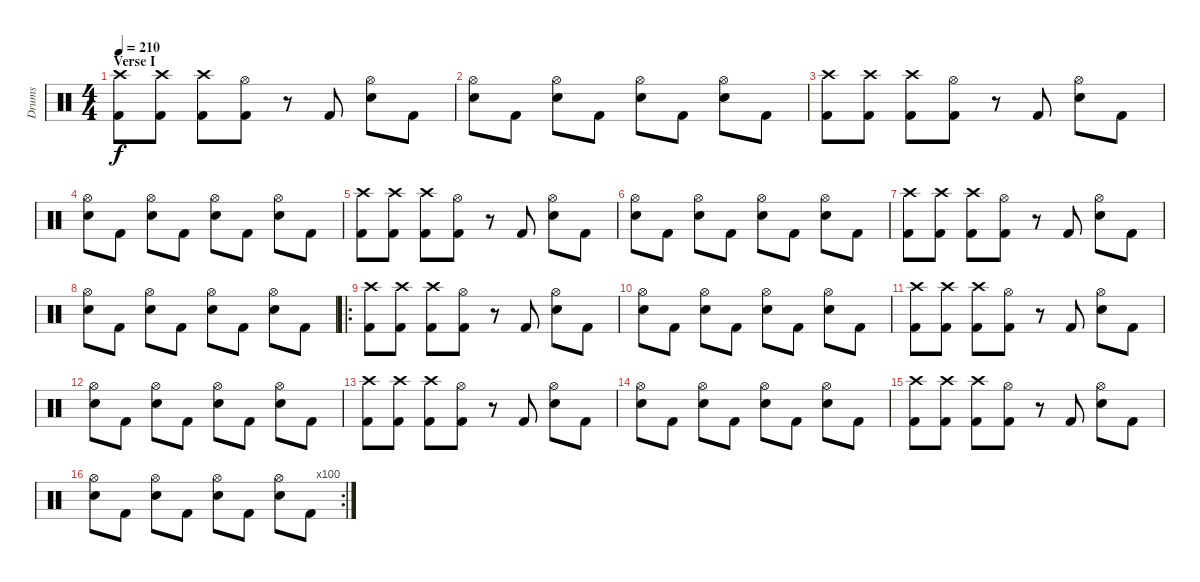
\track ("Drums" "Drums") {instrument percussion}
\staff {score}
\articulation defaults
\ts (4 4)
\section ("" "Verse I")
\tempo 210
\clef neutral
\ks c
("Crash high (hit)" "Kick (hit) 2").8{dy f} ("Crash high (hit)" "Kick (hit) 2").8 ("Crash high (hit)" "Kick (hit) 2").8 ("Hi-Hat (open)" "Kick (hit) 2").8 r.8 "Kick (hit) 2".8 ("Hi-Hat (open)" "Snare (hit) 2").8 "Kick (hit) 2".8 |
("Hi-Hat (open)" "Snare (hit) 2").8 "Kick (hit) 2".8 ("Hi-Hat (open)" "Snare (hit) 2").8 "Kick (hit) 2".8 ("Hi-Hat (open)" "Snare (hit) 2").8 "Kick (hit) 2".8 ("Hi-Hat (open)" "Snare (hit) 2").8 "Kick (hit) 2".8 |
("Crash high (hit)" "Kick (hit) 2").8 ("Crash high (hit)" "Kick (hit) 2").8 ("Crash high (hit)" "Kick (hit) 2").8 ("Hi-Hat (open)" "Kick (hit) 2").8 r.8 "Kick (hit) 2".8 ("Hi-Hat (open)" "Snare (hit) 2").8 "Kick (hit) 2".8 |
("Hi-Hat (open)" "Snare (hit) 2").8 "Kick (hit) 2".8 ("Hi-Hat (open)" "Snare (hit) 2").8 "Kick (hit) 2".8 ("Hi-Hat (open)" "Snare (hit) 2").8 "Kick (hit) 2".8 ("Hi-Hat (open)" "Snare (hit) 2").8 "Kick (hit) 2".8 |
("Crash high (hit)" "Kick (hit) 2").8 ("Crash high (hit)" "Kick (hit) 2").8 ("Crash high (hit)" "Kick (hit) 2").8 ("Hi-Hat (open)" "Kick (hit) 2").8 r.8 "Kick (hit) 2".8 ("Hi-Hat (open)" "Snare (hit) 2").8 "Kick (hit) 2".8 |
("Hi-Hat (open)" "Snare (hit) 2").8 "Kick (hit) 2".8 ("Hi-Hat (open)" "Snare (hit) 2").8 "Kick (hit) 2".8 ("Hi-Hat (open)" "Snare (hit) 2").8 "Kick (hit) 2".8 ("Hi-Hat (open)" "Snare (hit) 2").8 "Kick (hit) 2".8 |
("Crash high (hit)" "Kick (hit) 2").8 ("Crash high (hit)" "Kick (hit) 2").8 ("Crash high (hit)" "Kick (hit) 2").8 ("Hi-Hat (open)" "Kick (hit) 2").8 r.8 "Kick (hit) 2".8 ("Hi-Hat (open)" "Snare (hit) 2").8 "Kick (hit) 2".8 |
("Hi-Hat (open)" "Snare (hit) 2").8 "Kick (hit) 2".8 ("Hi-Hat (open)" "Snare (hit) 2").8 "Kick (hit) 2".8 ("Hi-Hat (open)" "Snare (hit) 2").8 "Kick (hit) 2".8 ("Hi-Hat (open)" "Snare (hit) 2").8 "Kick (hit) 2".8 |
\ro
("Crash high (hit)" "Kick (hit) 2").8 ("Crash high (hit)" "Kick (hit) 2").8 ("Crash high (hit)" "Kick (hit) 2").8 ("Hi-Hat (open)" "Kick (hit) 2").8 r.8 "Kick (hit) 2".8 ("Hi-Hat (open)" "Snare (hit) 2").8 "Kick (hit) 2".8 |
("Hi-Hat (open)" "Snare (hit) 2").8 "Kick (hit) 2".8 ("Hi-Hat (open)" "Snare (hit) 2").8 "Kick (hit) 2".8 ("Hi-Hat (open)" "Snare (hit) 2").8 "Kick (hit) 2".8 ("Hi-Hat (open)" "Snare (hit) 2").8 "Kick (hit) 2".8 |
("Crash high (hit)" "Kick (hit) 2").8 ("Crash high (hit)" "Kick (hit) 2").8 ("Crash high (hit)" "Kick (hit) 2").8 ("Hi-Hat (open)" "Kick (hit) 2").8 r.8 "Kick (hit) 2".8 ("Hi-Hat (open)" "Snare (hit) 2").8 "Kick (hit) 2".8 |
("Hi-Hat (open)" "Snare (hit) 2").8 "Kick (hit) 2".8 ("Hi-Hat (open)" "Snare (hit) 2").8 "Kick (hit) 2".8 ("Hi-Hat (open)" "Snare (hit) 2").8 "Kick (hit) 2".8 ("Hi-Hat (open)" "Snare (hit) 2").8 "Kick (hit) 2".8 |
("Crash high (hit)" "Kick (hit) 2").8 ("Crash high (hit)" "Kick (hit) 2").8 ("Crash high (hit)" "Kick (hit) 2").8 ("Hi-Hat (open)" "Kick (hit) 2").8 r.8 "Kick (hit) 2".8 ("Hi-Hat (open)" "Snare (hit) 2").8 "Kick (hit) 2".8 |
("Hi-Hat (open)" "Snare (hit) 2").8 "Kick (hit) 2".8 ("Hi-Hat (open)" "Snare (hit) 2").8 "Kick (hit) 2".8 ("Hi-Hat (open)" "Snare (hit) 2").8 "Kick (hit) 2".8 ("Hi-Hat (open)" "Snare (hit) 2").8 "Kick (hit) 2".8 |
("Crash high (hit)" "Kick (hit) 2").8 ("Crash high (hit)" "Kick (hit) 2").8 ("Crash high (hit)" "Kick (hit) 2").8 ("Hi-Hat (open)" "Kick (hit) 2").8 r.8 "Kick (hit) 2".8 ("Hi-Hat (open)" "Snare (hit) 2").8 "Kick (hit) 2".8 |
\rc 100
("Hi-Hat (open)" "Snare (hit) 2").8 "Kick (hit) 2".8 ("Hi-Hat (open)" "Snare (hit) 2").8 "Kick (hit) 2".8 ("Hi-Hat (open)" "Snare (hit) 2").8 "Kick (hit) 2".8 ("Hi-Hat (open)" "Snare (hit) 2").8 "Kick (hit) 2".8
